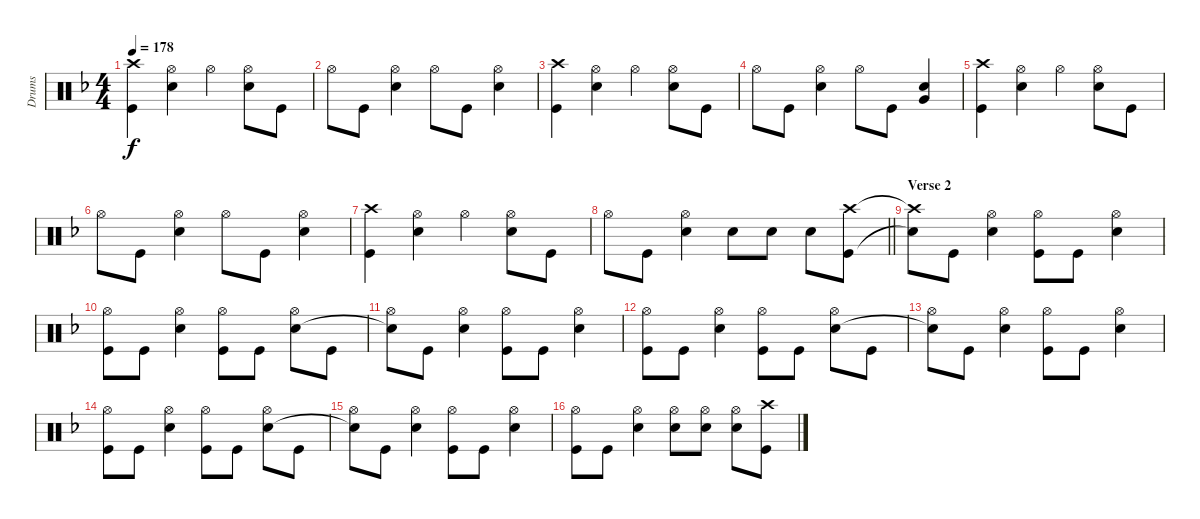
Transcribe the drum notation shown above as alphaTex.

\track ("Drums" "Drums") {instrument percussion}
\staff {score}
\articulation defaults
\ts (4 4)
\tempo 178
\clef neutral
\ks f
("Crash high (hit)" "Kick (hit)").4{dy f} ("Hi-Hat (open)" "Electric Snare (hit)").4 "Hi-Hat (open)".4 ("Hi-Hat (open)" "Electric Snare (hit)").8 "Kick (hit)".8 |
"Hi-Hat (open)".8 "Kick (hit)".8 ("Hi-Hat (open)" "Electric Snare (hit)").4 "Hi-Hat (open)".8 "Kick (hit)".8 ("Hi-Hat (open)" "Electric Snare (hit)").4 |
("Crash high (hit)" "Kick (hit)").4 ("Hi-Hat (open)" "Electric Snare (hit)").4 "Hi-Hat (open)".4 ("Hi-Hat (open)" "Electric Snare (hit)").8 "Kick (hit)".8 |
"Hi-Hat (open)".8 "Kick (hit)".8 ("Hi-Hat (open)" "Electric Snare (hit)").4 "Hi-Hat (open)".8 "Kick (hit)".8 ("Very Low Tom (hit)" "Electric Snare (hit)").4 |
("Crash high (hit)" "Kick (hit)").4 ("Hi-Hat (open)" "Electric Snare (hit)").4 "Hi-Hat (open)".4 ("Hi-Hat (open)" "Electric Snare (hit)").8 "Kick (hit)".8 |
"Hi-Hat (open)".8 "Kick (hit)".8 ("Hi-Hat (open)" "Electric Snare (hit)").4 "Hi-Hat (open)".8 "Kick (hit)".8 ("Hi-Hat (open)" "Electric Snare (hit)").4 |
("Crash high (hit)" "Kick (hit)").4 ("Hi-Hat (open)" "Electric Snare (hit)").4 "Hi-Hat (open)".4 ("Hi-Hat (open)" "Electric Snare (hit)").8 "Kick (hit)".8 |
\barLineRight lightlight "Hi-Hat (open)".8 "Kick (hit)".8
("Hi-Hat (open)" "Electric Snare (hit)").4 "Electric Snare (hit)".8 "Electric Snare (hit)".8 "Electric Snare (hit)".8 ("Crash high (hit)" "Kick (hit)").8 |
\section ("" "Verse 2")
("Crash high (hit)"{t} "Snare (hit)"{t}).8 "Kick (hit)".8 ("Hi-Hat (open)" "Electric Snare (hit)").4 ("Hi-Hat (open)" "Kick (hit)").8 "Kick (hit)".8 ("Hi-Hat (open)" "Electric Snare (hit)").4 |
("Hi-Hat (open)" "Kick (hit)").8 "Kick (hit)".8 ("Hi-Hat (open)" "Electric Snare (hit)").4 ("Hi-Hat (open)" "Kick (hit)").8 "Kick (hit)".8 ("Hi-Hat (open)" "Electric Snare (hit)").8 "Kick (hit)".8 |
("Hi-Hat (open)" "Snare (hit)"{t}).8 "Kick (hit)".8 ("Hi-Hat (open)" "Electric Snare (hit)").4 ("Hi-Hat (open)" "Kick (hit)").8 "Kick (hit)".8 ("Hi-Hat (open)" "Electric Snare (hit)").4 |
("Hi-Hat (open)" "Kick (hit)").8 "Kick (hit)".8 ("Hi-Hat (open)" "Electric Snare (hit)").4 ("Hi-Hat (open)" "Kick (hit)").8 "Kick (hit)".8 ("Hi-Hat (open)" "Electric Snare (hit)").8 "Kick (hit)".8 |
("Hi-Hat (open)" "Snare (hit)"{t}).8 "Kick (hit)".8 ("Hi-Hat (open)" "Electric Snare (hit)").4 ("Hi-Hat (open)" "Kick (hit)").8 "Kick (hit)".8 ("Hi-Hat (open)" "Electric Snare (hit)").4 |
("Hi-Hat (open)" "Kick (hit)").8 "Kick (hit)".8 ("Hi-Hat (open)" "Electric Snare (hit)").4 ("Hi-Hat (open)" "Kick (hit)").8 "Kick (hit)".8 ("Hi-Hat (open)" "Electric Snare (hit)").8 "Kick (hit)".8 |
("Hi-Hat (open)" "Snare (hit)"{t}).8 "Kick (hit)".8 ("Hi-Hat (open)" "Electric Snare (hit)").4 ("Hi-Hat (open)" "Kick (hit)").8 "Kick (hit)".8 ("Hi-Hat (open)" "Electric Snare (hit)").4 |
("Hi-Hat (open)" "Kick (hit)").8 "Kick (hit)".8 ("Hi-Hat (open)" "Electric Snare (hit)").4 ("Hi-Hat (open)" "Electric Snare (hit)").8 ("Hi-Hat (open)" "Electric Snare (hit)").8 ("Hi-Hat (open)" "Electric Snare (hit)").8 ("Crash high (hit)" "Kick (hit)").8
